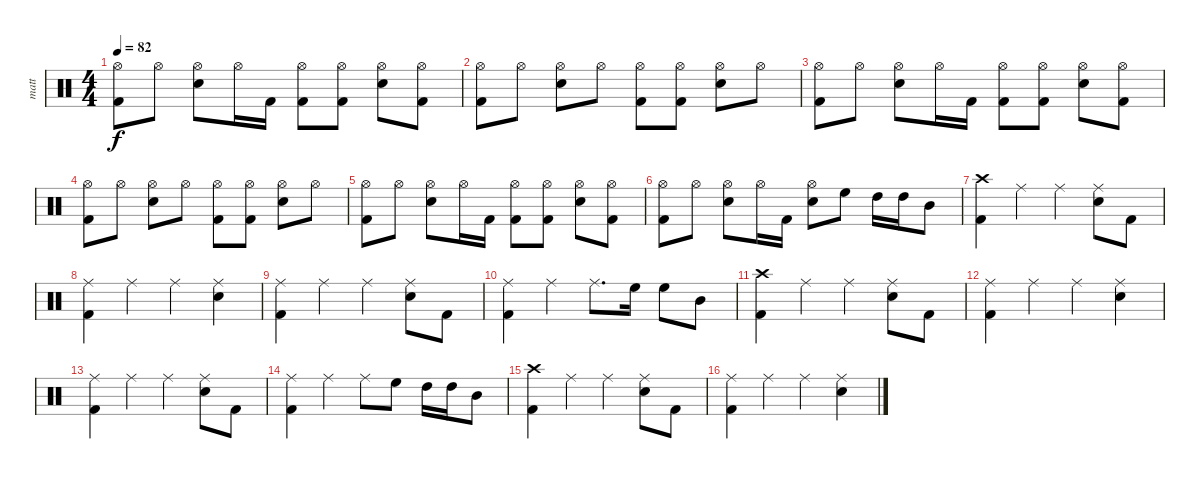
\track ("matt" "matt") {instrument percussion}
\staff {score}
\articulation defaults
\ts (4 4)
\tempo 82
\clef neutral
\ks c
("Hi-Hat (open)" "Kick (hit) 2").8{dy f} "Hi-Hat (open)".8 ("Hi-Hat (open)" "Electric Snare (hit)").8 "Hi-Hat (open)".16 "Kick (hit) 2".16 ("Hi-Hat (open)" "Kick (hit) 2").8 ("Hi-Hat (open)" "Kick (hit) 2").8 ("Hi-Hat (open)" "Electric Snare (hit)").8 ("Hi-Hat (open)" "Kick (hit) 2").8 |
("Hi-Hat (open)" "Kick (hit) 2").8 "Hi-Hat (open)".8 ("Hi-Hat (open)" "Electric Snare (hit)").8 "Hi-Hat (open)".8 ("Hi-Hat (open)" "Kick (hit) 2").8 ("Hi-Hat (open)" "Kick (hit) 2").8 ("Hi-Hat (open)" "Electric Snare (hit)").8 "Hi-Hat (open)".8 |
("Hi-Hat (open)" "Kick (hit) 2").8 "Hi-Hat (open)".8 ("Hi-Hat (open)" "Electric Snare (hit)").8 "Hi-Hat (open)".16 "Kick (hit) 2".16 ("Hi-Hat (open)" "Kick (hit) 2").8 ("Hi-Hat (open)" "Kick (hit) 2").8 ("Hi-Hat (open)" "Electric Snare (hit)").8 ("Hi-Hat (open)" "Kick (hit) 2").8 |
("Hi-Hat (open)" "Kick (hit) 2").8 "Hi-Hat (open)".8 ("Hi-Hat (open)" "Electric Snare (hit)").8 "Hi-Hat (open)".8 ("Hi-Hat (open)" "Kick (hit) 2").8 ("Hi-Hat (open)" "Kick (hit) 2").8 ("Hi-Hat (open)" "Electric Snare (hit)").8 "Hi-Hat (open)".8 |
("Hi-Hat (open)" "Kick (hit) 2").8 "Hi-Hat (open)".8 ("Hi-Hat (open)" "Electric Snare (hit)").8 "Hi-Hat (open)".16 "Kick (hit) 2".16 ("Hi-Hat (open)" "Kick (hit) 2").8 ("Hi-Hat (open)" "Kick (hit) 2").8 ("Hi-Hat (open)" "Electric Snare (hit)").8 ("Hi-Hat (open)" "Kick (hit) 2").8 |
("Hi-Hat (open)" "Kick (hit) 2").8 "Hi-Hat (open)".8 ("Hi-Hat (open)" "Electric Snare (hit)").8 "Hi-Hat (open)".16 "Kick (hit) 2".16 ("Hi-Hat (open)" "Electric Snare (hit)").8 "High Floor Tom (hit)".8 "High Tom (hit)".16 "High Tom (hit)".16 "Mid Tom (hit)".8 |
("Crash high (hit)" "Kick (hit) 2").4 "Ride (middle)".4 "Ride (middle)".4 ("Ride (middle)" "Electric Snare (hit)").8 "Kick (hit) 2".8 |
("Ride (middle)" "Kick (hit) 2").4 "Ride (middle)".4 "Ride (middle)".4 ("Ride (middle)" "Electric Snare (hit)").4 |
("Ride (middle)" "Kick (hit) 2").4 "Ride (middle)".4 "Ride (middle)".4 ("Ride (middle)" "Electric Snare (hit)").8 "Kick (hit) 2".8 |
("Ride (middle)" "Kick (hit) 2").4 "Ride (middle)".4 "Ride (middle)".8{d} "High Floor Tom (hit)".16 "High Floor Tom (hit)".8 "Mid Tom (hit)".8 |
("Crash high (hit)" "Kick (hit) 2").4 "Ride (middle)".4 "Ride (middle)".4 ("Ride (middle)" "Electric Snare (hit)").8 "Kick (hit) 2".8 |
("Ride (middle)" "Kick (hit) 2").4 "Ride (middle)".4 "Ride (middle)".4 ("Ride (middle)" "Electric Snare (hit)").4 |
("Ride (middle)" "Kick (hit) 2").4 "Ride (middle)".4 "Ride (middle)".4 ("Ride (middle)" "Electric Snare (hit)").8 "Kick (hit) 2".8 |
("Ride (middle)" "Kick (hit) 2").4 "Ride (middle)".4 "Ride (middle)".8 "High Floor Tom (hit)".8 "High Tom (hit)".16 "High Tom (hit)".16 "Mid Tom (hit)".8 |
("Crash high (hit)" "Kick (hit) 2").4 "Ride (middle)".4 "Ride (middle)".4 ("Ride (middle)" "Electric Snare (hit)").8 "Kick (hit) 2".8 |
("Ride (middle)" "Kick (hit) 2").4 "Ride (middle)".4 "Ride (middle)".4 ("Ride (middle)" "Electric Snare (hit)").4
